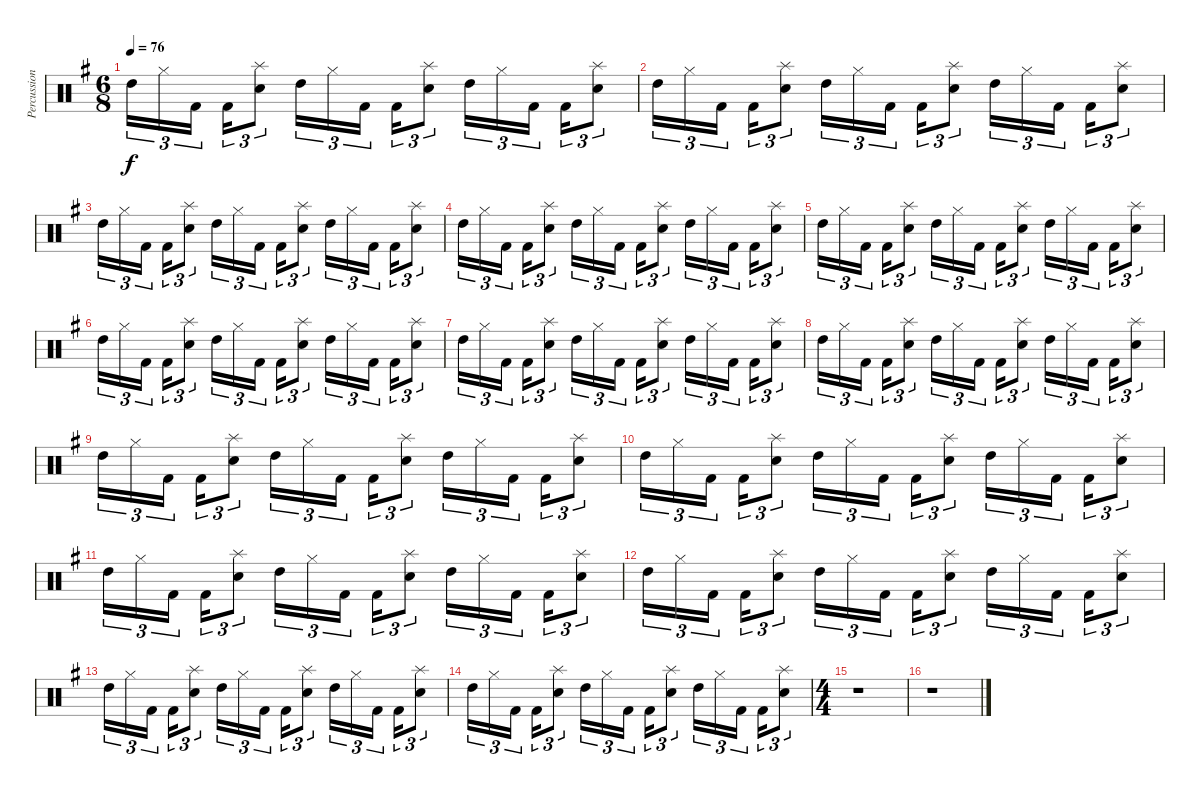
\track ("Percussions 3" "Percussion") {instrument percussion}
\staff {score}
\articulation defaults
\ts (6 8)
\tempo 76
\clef neutral
\ks g "High Tom (hit)".16{tu (3 2) dy f} "Hi-Hat (closed)".16{tu (3 2)} "Kick (hit) 2".16{tu (3 2)} "Kick (hit) 2".16{tu (3 2)}
("Splash (hit)" "Snare (hit) 2").8{tu (3 2)} "High Tom (hit)".16{tu (3 2)} "Hi-Hat (closed)".16{tu (3 2)} "Kick (hit) 2".16{tu (3 2)} "Kick (hit) 2".16{tu (3 2)} ("Splash (hit)" "Snare (hit) 2").8{tu (3 2)} "High Tom (hit)".16{tu (3 2)} "Hi-Hat (closed)".16{tu (3 2)} "Kick (hit) 2".16{tu (3 2)} "Kick (hit) 2".16{tu (3 2)} ("Splash (hit)" "Snare (hit) 2").8{tu (3 2)} |
"High Tom (hit)".16{tu (3 2)} "Hi-Hat (closed)".16{tu (3 2)} "Kick (hit) 2".16{tu (3 2)} "Kick (hit) 2".16{tu (3 2)} ("Splash (hit)" "Snare (hit) 2").8{tu (3 2)} "High Tom (hit)".16{tu (3 2)} "Hi-Hat (closed)".16{tu (3 2)} "Kick (hit) 2".16{tu (3 2)} "Kick (hit) 2".16{tu (3 2)} ("Splash (hit)" "Snare (hit) 2").8{tu (3 2)} "High Tom (hit)".16{tu (3 2)} "Hi-Hat (closed)".16{tu (3 2)} "Kick (hit) 2".16{tu (3 2)} "Kick (hit) 2".16{tu (3 2)} ("Splash (hit)" "Snare (hit) 2").8{tu (3 2)} |
"High Tom (hit)".16{tu (3 2)} "Hi-Hat (closed)".16{tu (3 2)} "Kick (hit) 2".16{tu (3 2)} "Kick (hit) 2".16{tu (3 2)} ("Splash (hit)" "Snare (hit) 2").8{tu (3 2)} "High Tom (hit)".16{tu (3 2)} "Hi-Hat (closed)".16{tu (3 2)} "Kick (hit) 2".16{tu (3 2)} "Kick (hit) 2".16{tu (3 2)} ("Splash (hit)" "Snare (hit) 2").8{tu (3 2)} "High Tom (hit)".16{tu (3 2)} "Hi-Hat (closed)".16{tu (3 2)} "Kick (hit) 2".16{tu (3 2)} "Kick (hit) 2".16{tu (3 2)} ("Splash (hit)" "Snare (hit) 2").8{tu (3 2)} |
"High Tom (hit)".16{tu (3 2)} "Hi-Hat (closed)".16{tu (3 2)} "Kick (hit) 2".16{tu (3 2)} "Kick (hit) 2".16{tu (3 2)} ("Splash (hit)" "Snare (hit) 2").8{tu (3 2)} "High Tom (hit)".16{tu (3 2)} "Hi-Hat (closed)".16{tu (3 2)} "Kick (hit) 2".16{tu (3 2)} "Kick (hit) 2".16{tu (3 2)} ("Splash (hit)" "Snare (hit) 2").8{tu (3 2)} "High Tom (hit)".16{tu (3 2)} "Hi-Hat (closed)".16{tu (3 2)} "Kick (hit) 2".16{tu (3 2)} "Kick (hit) 2".16{tu (3 2)} ("Splash (hit)" "Snare (hit) 2").8{tu (3 2)} |
"High Tom (hit)".16{tu (3 2)} "Hi-Hat (closed)".16{tu (3 2)} "Kick (hit) 2".16{tu (3 2)} "Kick (hit) 2".16{tu (3 2)} ("Splash (hit)" "Snare (hit) 2").8{tu (3 2)} "High Tom (hit)".16{tu (3 2)} "Hi-Hat (closed)".16{tu (3 2)} "Kick (hit) 2".16{tu (3 2)} "Kick (hit) 2".16{tu (3 2)} ("Splash (hit)" "Snare (hit) 2").8{tu (3 2)} "High Tom (hit)".16{tu (3 2)} "Hi-Hat (closed)".16{tu (3 2)} "Kick (hit) 2".16{tu (3 2)} "Kick (hit) 2".16{tu (3 2)} ("Splash (hit)" "Snare (hit) 2").8{tu (3 2)} |
"High Tom (hit)".16{tu (3 2)} "Hi-Hat (closed)".16{tu (3 2)} "Kick (hit) 2".16{tu (3 2)} "Kick (hit) 2".16{tu (3 2)} ("Splash (hit)" "Snare (hit) 2").8{tu (3 2)} "High Tom (hit)".16{tu (3 2)} "Hi-Hat (closed)".16{tu (3 2)} "Kick (hit) 2".16{tu (3 2)} "Kick (hit) 2".16{tu (3 2)} ("Splash (hit)" "Snare (hit) 2").8{tu (3 2)} "High Tom (hit)".16{tu (3 2)} "Hi-Hat (closed)".16{tu (3 2)} "Kick (hit) 2".16{tu (3 2)} "Kick (hit) 2".16{tu (3 2)} ("Splash (hit)" "Snare (hit) 2").8{tu (3 2)} |
"High Tom (hit)".16{tu (3 2)} "Hi-Hat (closed)".16{tu (3 2)} "Kick (hit) 2".16{tu (3 2)} "Kick (hit) 2".16{tu (3 2)} ("Splash (hit)" "Snare (hit) 2").8{tu (3 2)} "High Tom (hit)".16{tu (3 2)} "Hi-Hat (closed)".16{tu (3 2)} "Kick (hit) 2".16{tu (3 2)} "Kick (hit) 2".16{tu (3 2)} ("Splash (hit)" "Snare (hit) 2").8{tu (3 2)} "High Tom (hit)".16{tu (3 2)} "Hi-Hat (closed)".16{tu (3 2)} "Kick (hit) 2".16{tu (3 2)} "Kick (hit) 2".16{tu (3 2)} ("Splash (hit)" "Snare (hit) 2").8{tu (3 2)} |
"High Tom (hit)".16{tu (3 2)} "Hi-Hat (closed)".16{tu (3 2)} "Kick (hit) 2".16{tu (3 2)} "Kick (hit) 2".16{tu (3 2)} ("Splash (hit)" "Snare (hit) 2").8{tu (3 2)} "High Tom (hit)".16{tu (3 2)} "Hi-Hat (closed)".16{tu (3 2)} "Kick (hit) 2".16{tu (3 2)} "Kick (hit) 2".16{tu (3 2)} ("Splash (hit)" "Snare (hit) 2").8{tu (3 2)} "High Tom (hit)".16{tu (3 2)} "Hi-Hat (closed)".16{tu (3 2)} "Kick (hit) 2".16{tu (3 2)} "Kick (hit) 2".16{tu (3 2)} ("Splash (hit)" "Snare (hit) 2").8{tu (3 2)} |
"High Tom (hit)".16{tu (3 2)} "Hi-Hat (closed)".16{tu (3 2)} "Kick (hit) 2".16{tu (3 2)} "Kick (hit) 2".16{tu (3 2)} ("Splash (hit)" "Snare (hit) 2").8{tu (3 2)} "High Tom (hit)".16{tu (3 2)} "Hi-Hat (closed)".16{tu (3 2)} "Kick (hit) 2".16{tu (3 2)} "Kick (hit) 2".16{tu (3 2)} ("Splash (hit)" "Snare (hit) 2").8{tu (3 2)} "High Tom (hit)".16{tu (3 2)} "Hi-Hat (closed)".16{tu (3 2)} "Kick (hit) 2".16{tu (3 2)} "Kick (hit) 2".16{tu (3 2)} ("Splash (hit)" "Snare (hit) 2").8{tu (3 2)} |
"High Tom (hit)".16{tu (3 2)} "Hi-Hat (closed)".16{tu (3 2)} "Kick (hit) 2".16{tu (3 2)} "Kick (hit) 2".16{tu (3 2)} ("Splash (hit)" "Snare (hit) 2").8{tu (3 2)} "High Tom (hit)".16{tu (3 2)} "Hi-Hat (closed)".16{tu (3 2)} "Kick (hit) 2".16{tu (3 2)} "Kick (hit) 2".16{tu (3 2)} ("Splash (hit)" "Snare (hit) 2").8{tu (3 2)} "High Tom (hit)".16{tu (3 2)} "Hi-Hat (closed)".16{tu (3 2)} "Kick (hit) 2".16{tu (3 2)} "Kick (hit) 2".16{tu (3 2)} ("Splash (hit)" "Snare (hit) 2").8{tu (3 2)} |
"High Tom (hit)".16{tu (3 2)} "Hi-Hat (closed)".16{tu (3 2)} "Kick (hit) 2".16{tu (3 2)} "Kick (hit) 2".16{tu (3 2)} ("Splash (hit)" "Snare (hit) 2").8{tu (3 2)} "High Tom (hit)".16{tu (3 2)} "Hi-Hat (closed)".16{tu (3 2)} "Kick (hit) 2".16{tu (3 2)} "Kick (hit) 2".16{tu (3 2)} ("Splash (hit)" "Snare (hit) 2").8{tu (3 2)} "High Tom (hit)".16{tu (3 2)} "Hi-Hat (closed)".16{tu (3 2)} "Kick (hit) 2".16{tu (3 2)} "Kick (hit) 2".16{tu (3 2)} ("Splash (hit)" "Snare (hit) 2").8{tu (3 2)} |
"High Tom (hit)".16{tu (3 2)} "Hi-Hat (closed)".16{tu (3 2)} "Kick (hit) 2".16{tu (3 2)} "Kick (hit) 2".16{tu (3 2)} ("Splash (hit)" "Snare (hit) 2").8{tu (3 2)} "High Tom (hit)".16{tu (3 2)} "Hi-Hat (closed)".16{tu (3 2)} "Kick (hit) 2".16{tu (3 2)} "Kick (hit) 2".16{tu (3 2)} ("Splash (hit)" "Snare (hit) 2").8{tu (3 2)} "High Tom (hit)".16{tu (3 2)} "Hi-Hat (closed)".16{tu (3 2)} "Kick (hit) 2".16{tu (3 2)} "Kick (hit) 2".16{tu (3 2)} ("Splash (hit)" "Snare (hit) 2").8{tu (3 2)} |
"High Tom (hit)".16{tu (3 2)} "Hi-Hat (closed)".16{tu (3 2)} "Kick (hit) 2".16{tu (3 2)} "Kick (hit) 2".16{tu (3 2)} ("Splash (hit)" "Snare (hit) 2").8{tu (3 2)} "High Tom (hit)".16{tu (3 2)} "Hi-Hat (closed)".16{tu (3 2)} "Kick (hit) 2".16{tu (3 2)} "Kick (hit) 2".16{tu (3 2)} ("Splash (hit)" "Snare (hit) 2").8{tu (3 2)} "High Tom (hit)".16{tu (3 2)} "Hi-Hat (closed)".16{tu (3 2)} "Kick (hit) 2".16{tu (3 2)} "Kick (hit) 2".16{tu (3 2)} ("Splash (hit)" "Snare (hit) 2").8{tu (3 2)} |
"High Tom (hit)".16{tu (3 2)} "Hi-Hat (closed)".16{tu (3 2)} "Kick (hit) 2".16{tu (3 2)} "Kick (hit) 2".16{tu (3 2)} ("Splash (hit)" "Snare (hit) 2").8{tu (3 2)} "High Tom (hit)".16{tu (3 2)} "Hi-Hat (closed)".16{tu (3 2)} "Kick (hit) 2".16{tu (3 2)} "Kick (hit) 2".16{tu (3 2)} ("Splash (hit)" "Snare (hit) 2").8{tu (3 2)} "High Tom (hit)".16{tu (3 2)} "Hi-Hat (closed)".16{tu (3 2)} "Kick (hit) 2".16{tu (3 2)} "Kick (hit) 2".16{tu (3 2)} ("Splash (hit)" "Snare (hit) 2").8{tu (3 2)} |
\ts (4 4)
r.1 |
r.1
